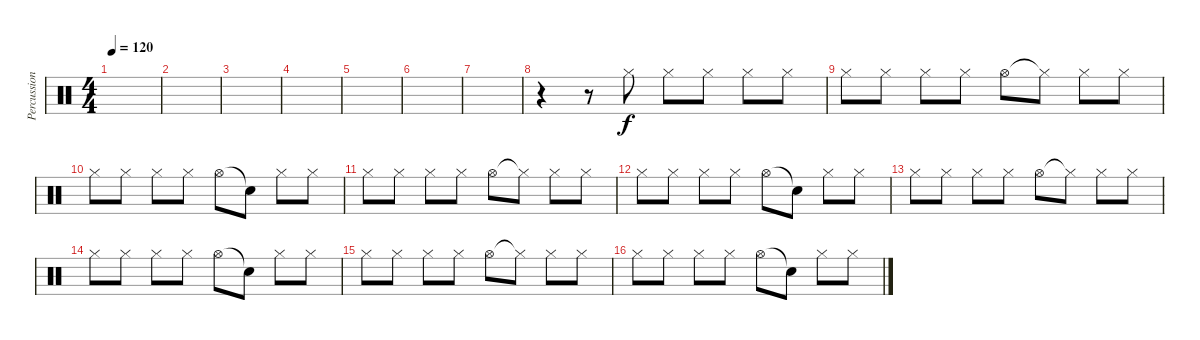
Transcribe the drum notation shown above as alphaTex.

\track ("Percussion" "Percussion") {instrument percussion}
\staff {score}
\articulation defaults
\ts (4 4)
\tempo 120
\clef neutral
\ks c
|
|
|
|
|
|
|
r.4 r.8 "Hi-Hat (closed)".8 "Hi-Hat (closed)".8 "Hi-Hat (closed)".8 "Hi-Hat (closed)".8 "Hi-Hat (closed)".8 |
"Hi-Hat (closed)".8 "Hi-Hat (closed)".8 "Hi-Hat (closed)".8 "Hi-Hat (closed)".8 "Hi-Hat (open)".8 "Hi-Hat (closed)"{t}.8 "Hi-Hat (closed)".8 "Hi-Hat (closed)".8 |
"Hi-Hat (closed)".8 "Hi-Hat (closed)".8 "Hi-Hat (closed)".8 "Hi-Hat (closed)".8 "Hi-Hat (open)".8 "Snare (hit)"{t}.8 "Hi-Hat (closed)".8 "Hi-Hat (closed)".8 |
"Hi-Hat (closed)".8 "Hi-Hat (closed)".8 "Hi-Hat (closed)".8 "Hi-Hat (closed)".8 "Hi-Hat (open)".8 "Hi-Hat (closed)"{t}.8 "Hi-Hat (closed)".8 "Hi-Hat (closed)".8 |
"Hi-Hat (closed)".8 "Hi-Hat (closed)".8 "Hi-Hat (closed)".8 "Hi-Hat (closed)".8 "Hi-Hat (open)".8 "Snare (hit)"{t}.8 "Hi-Hat (closed)".8 "Hi-Hat (closed)".8 |
"Hi-Hat (closed)".8 "Hi-Hat (closed)".8 "Hi-Hat (closed)".8 "Hi-Hat (closed)".8 "Hi-Hat (open)".8 "Hi-Hat (closed)"{t}.8 "Hi-Hat (closed)".8 "Hi-Hat (closed)".8 |
"Hi-Hat (closed)".8{volume 14} "Hi-Hat (closed)".8 "Hi-Hat (closed)".8 "Hi-Hat (closed)".8 "Hi-Hat (open)".8 "Snare (hit)"{t}.8 "Hi-Hat (closed)".8 "Hi-Hat (closed)".8 |
"Hi-Hat (closed)".8 "Hi-Hat (closed)".8 "Hi-Hat (closed)".8 "Hi-Hat (closed)".8 "Hi-Hat (open)".8 "Hi-Hat (closed)"{t}.8 "Hi-Hat (closed)".8 "Hi-Hat (closed)".8 |
"Hi-Hat (closed)".8 "Hi-Hat (closed)".8 "Hi-Hat (closed)".8 "Hi-Hat (closed)".8 "Hi-Hat (open)".8 "Snare (hit)"{t}.8 "Hi-Hat (closed)".8 "Hi-Hat (closed)".8
